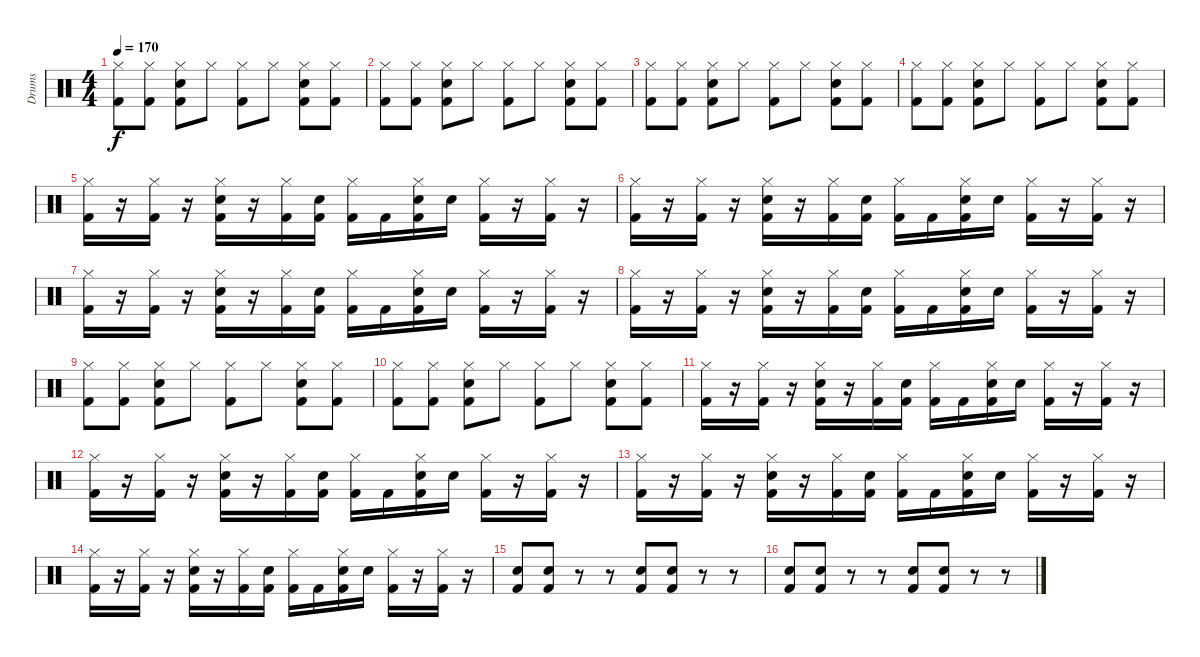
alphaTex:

\track ("Drums" "Drums") {instrument percussion}
\staff {score}
\articulation defaults
\ts (4 4)
\tempo 170
\clef neutral
\ks c
("Hi-Hat (closed)" "Kick (hit) 2").8{dy f} ("Hi-Hat (closed)" "Kick (hit) 2").8 ("Hi-Hat (closed)" "Electric Snare (hit)" "Kick (hit) 2").8 "Hi-Hat (closed)".8 ("Hi-Hat (closed)" "Kick (hit) 2").8 "Hi-Hat (closed)".8 ("Hi-Hat (closed)" "Electric Snare (hit)" "Kick (hit) 2").8 ("Hi-Hat (closed)" "Kick (hit) 2").8 |
("Hi-Hat (closed)" "Kick (hit) 2").8 ("Hi-Hat (closed)" "Kick (hit) 2").8 ("Hi-Hat (closed)" "Electric Snare (hit)" "Kick (hit) 2").8 "Hi-Hat (closed)".8 ("Hi-Hat (closed)" "Kick (hit) 2").8 "Hi-Hat (closed)".8 ("Hi-Hat (closed)" "Electric Snare (hit)" "Kick (hit) 2").8 ("Hi-Hat (closed)" "Kick (hit) 2").8 |
("Hi-Hat (closed)" "Kick (hit) 2").8 ("Hi-Hat (closed)" "Kick (hit) 2").8 ("Hi-Hat (closed)" "Electric Snare (hit)" "Kick (hit) 2").8 "Hi-Hat (closed)".8 ("Hi-Hat (closed)" "Kick (hit) 2").8 "Hi-Hat (closed)".8 ("Hi-Hat (closed)" "Electric Snare (hit)" "Kick (hit) 2").8 ("Hi-Hat (closed)" "Kick (hit) 2").8 |
("Hi-Hat (closed)" "Kick (hit) 2").8 ("Hi-Hat (closed)" "Kick (hit) 2").8 ("Hi-Hat (closed)" "Electric Snare (hit)" "Kick (hit) 2").8 "Hi-Hat (closed)".8 ("Hi-Hat (closed)" "Kick (hit) 2").8 "Hi-Hat (closed)".8 ("Hi-Hat (closed)" "Electric Snare (hit)" "Kick (hit) 2").8 ("Hi-Hat (closed)" "Kick (hit) 2").8 |
("Hi-Hat (closed)" "Kick (hit) 2").16 r.16 ("Hi-Hat (closed)" "Kick (hit) 2").16 r.16 ("Hi-Hat (closed)" "Electric Snare (hit)" "Kick (hit) 2").16 r.16 ("Hi-Hat (closed)" "Kick (hit) 2").16 ("Kick (hit) 2" "Electric Snare (hit)").16 ("Hi-Hat (closed)" "Kick (hit) 2").16 "Kick (hit) 2".16 ("Hi-Hat (closed)" "Kick (hit) 2" "Electric Snare (hit)").16 "Electric Snare (hit)".16 ("Hi-Hat (closed)" "Kick (hit) 2").16 r.16 ("Hi-Hat (closed)" "Kick (hit) 2").16 r.16 |
("Hi-Hat (closed)" "Kick (hit) 2").16 r.16 ("Hi-Hat (closed)" "Kick (hit) 2").16 r.16 ("Hi-Hat (closed)" "Electric Snare (hit)" "Kick (hit) 2").16 r.16 ("Hi-Hat (closed)" "Kick (hit) 2").16 ("Kick (hit) 2" "Electric Snare (hit)").16 ("Hi-Hat (closed)" "Kick (hit) 2").16 "Kick (hit) 2".16 ("Hi-Hat (closed)" "Kick (hit) 2" "Electric Snare (hit)").16 "Electric Snare (hit)".16 ("Hi-Hat (closed)" "Kick (hit) 2").16 r.16 ("Hi-Hat (closed)" "Kick (hit) 2").16 r.16 |
("Hi-Hat (closed)" "Kick (hit) 2").16 r.16 ("Hi-Hat (closed)" "Kick (hit) 2").16 r.16 ("Hi-Hat (closed)" "Electric Snare (hit)" "Kick (hit) 2").16 r.16 ("Hi-Hat (closed)" "Kick (hit) 2").16 ("Kick (hit) 2" "Electric Snare (hit)").16 ("Hi-Hat (closed)" "Kick (hit) 2").16 "Kick (hit) 2".16 ("Hi-Hat (closed)" "Kick (hit) 2" "Electric Snare (hit)").16 "Electric Snare (hit)".16 ("Hi-Hat (closed)" "Kick (hit) 2").16 r.16 ("Hi-Hat (closed)" "Kick (hit) 2").16 r.16 |
("Hi-Hat (closed)" "Kick (hit) 2").16 r.16 ("Hi-Hat (closed)" "Kick (hit) 2").16 r.16 ("Hi-Hat (closed)" "Electric Snare (hit)" "Kick (hit) 2").16 r.16 ("Hi-Hat (closed)" "Kick (hit) 2").16 ("Kick (hit) 2" "Electric Snare (hit)").16 ("Hi-Hat (closed)" "Kick (hit) 2").16 "Kick (hit) 2".16 ("Hi-Hat (closed)" "Kick (hit) 2" "Electric Snare (hit)").16 "Electric Snare (hit)".16 ("Hi-Hat (closed)" "Kick (hit) 2").16 r.16 ("Hi-Hat (closed)" "Kick (hit) 2").16 r.16 |
("Hi-Hat (closed)" "Kick (hit) 2").8 ("Hi-Hat (closed)" "Kick (hit) 2").8 ("Hi-Hat (closed)" "Electric Snare (hit)" "Kick (hit) 2").8 "Hi-Hat (closed)".8 ("Hi-Hat (closed)" "Kick (hit) 2").8 "Hi-Hat (closed)".8 ("Hi-Hat (closed)" "Electric Snare (hit)" "Kick (hit) 2").8 ("Hi-Hat (closed)" "Kick (hit) 2").8 |
("Hi-Hat (closed)" "Kick (hit) 2").8 ("Hi-Hat (closed)" "Kick (hit) 2").8 ("Hi-Hat (closed)" "Electric Snare (hit)" "Kick (hit) 2").8 "Hi-Hat (closed)".8 ("Hi-Hat (closed)" "Kick (hit) 2").8 "Hi-Hat (closed)".8 ("Hi-Hat (closed)" "Electric Snare (hit)" "Kick (hit) 2").8 ("Hi-Hat (closed)" "Kick (hit) 2").8 |
("Hi-Hat (closed)" "Kick (hit) 2").16 r.16 ("Hi-Hat (closed)" "Kick (hit) 2").16 r.16 ("Hi-Hat (closed)" "Electric Snare (hit)" "Kick (hit) 2").16 r.16 ("Hi-Hat (closed)" "Kick (hit) 2").16 ("Kick (hit) 2" "Electric Snare (hit)").16 ("Hi-Hat (closed)" "Kick (hit) 2").16 "Kick (hit) 2".16 ("Hi-Hat (closed)" "Kick (hit) 2" "Electric Snare (hit)").16 "Electric Snare (hit)".16 ("Hi-Hat (closed)" "Kick (hit) 2").16 r.16 ("Hi-Hat (closed)" "Kick (hit) 2").16 r.16 |
("Hi-Hat (closed)" "Kick (hit) 2").16 r.16 ("Hi-Hat (closed)" "Kick (hit) 2").16 r.16 ("Hi-Hat (closed)" "Electric Snare (hit)" "Kick (hit) 2").16 r.16 ("Hi-Hat (closed)" "Kick (hit) 2").16 ("Kick (hit) 2" "Electric Snare (hit)").16 ("Hi-Hat (closed)" "Kick (hit) 2").16 "Kick (hit) 2".16 ("Hi-Hat (closed)" "Kick (hit) 2" "Electric Snare (hit)").16 "Electric Snare (hit)".16 ("Hi-Hat (closed)" "Kick (hit) 2").16 r.16 ("Hi-Hat (closed)" "Kick (hit) 2").16 r.16 |
("Hi-Hat (closed)" "Kick (hit) 2").16 r.16 ("Hi-Hat (closed)" "Kick (hit) 2").16 r.16 ("Hi-Hat (closed)" "Electric Snare (hit)" "Kick (hit) 2").16 r.16 ("Hi-Hat (closed)" "Kick (hit) 2").16 ("Kick (hit) 2" "Electric Snare (hit)").16 ("Hi-Hat (closed)" "Kick (hit) 2").16 "Kick (hit) 2".16 ("Hi-Hat (closed)" "Kick (hit) 2" "Electric Snare (hit)").16 "Electric Snare (hit)".16 ("Hi-Hat (closed)" "Kick (hit) 2").16 r.16 ("Hi-Hat (closed)" "Kick (hit) 2").16 r.16 |
("Hi-Hat (closed)" "Kick (hit) 2").16 r.16 ("Hi-Hat (closed)" "Kick (hit) 2").16 r.16 ("Hi-Hat (closed)" "Electric Snare (hit)" "Kick (hit) 2").16 r.16 ("Hi-Hat (closed)" "Kick (hit) 2").16 ("Kick (hit) 2" "Electric Snare (hit)").16 ("Hi-Hat (closed)" "Kick (hit) 2").16 "Kick (hit) 2".16 ("Hi-Hat (closed)" "Kick (hit) 2" "Electric Snare (hit)").16 "Electric Snare (hit)".16 ("Hi-Hat (closed)" "Kick (hit) 2").16 r.16 ("Hi-Hat (closed)" "Kick (hit) 2").16 r.16 |
("Electric Snare (hit)" "Kick (hit) 2").8 ("Electric Snare (hit)" "Kick (hit) 2").8 r.8 r.8 ("Electric Snare (hit)" "Kick (hit) 2").8 ("Electric Snare (hit)" "Kick (hit) 2").8 r.8 r.8 |
("Electric Snare (hit)" "Kick (hit) 2").8 ("Electric Snare (hit)" "Kick (hit) 2").8 r.8 r.8 ("Electric Snare (hit)" "Kick (hit) 2").8 ("Electric Snare (hit)" "Kick (hit) 2").8 r.8 r.8
